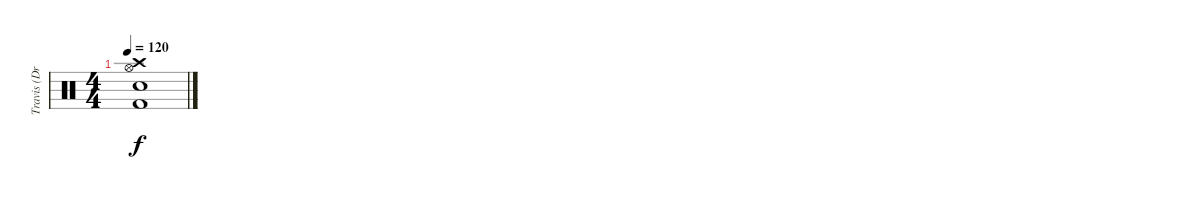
\track ("Travis (Drum)" "Travis (Dr") {instrument percussion}
\staff {score}
\articulation defaults
\ts (4 4)
\tempo 120
\clef neutral
\ks c
("Crash high (hit)" "Hi-Hat (open)" "Kick (hit) 2" "Electric Snare (hit)").1{dy f}
